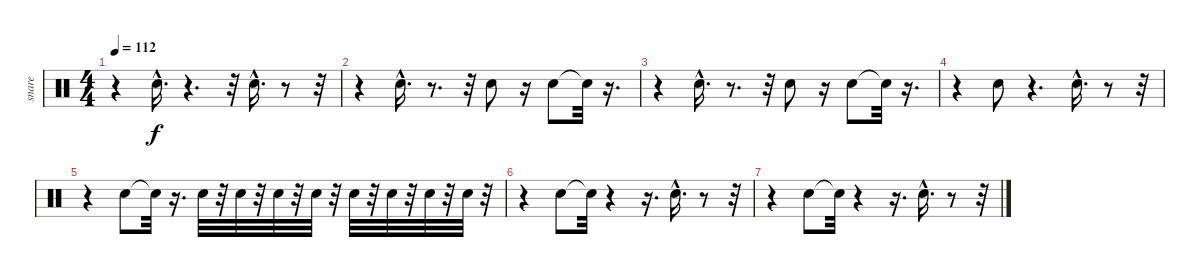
\track ("snare" "snare") {instrument percussion}
\staff {score}
\articulation defaults
\ts (4 4)
\tempo 112
\clef neutral
\ks c
r.4{dy f} "Snare (hit) 2"{hac}.16{d} r.4{d} r.32 "Snare (hit) 2"{hac}.16{d} r.8 r.32 |
r.4 "Snare (hit) 2"{hac}.16{d} r.8{d} r.32 "Snare (hit) 2".8 r.16 "Snare (hit) 2".8 "Snare (hit)"{t}.32 r.16{d} |
r.4 "Snare (hit) 2"{hac}.16{d} r.8{d} r.32 "Snare (hit) 2".8 r.16 "Snare (hit) 2".8 "Snare (hit)"{t}.32 r.16{d} |
r.4 "Snare (hit) 2".8 r.4{d} "Snare (hit) 2"{hac}.16{d} r.8 r.32 |
r.4 "Snare (hit) 2".8 "Snare (hit)"{t}.32 r.16{d} "Snare (hit) 2".32 r.32 "Snare (hit) 2".32 r.32 "Snare (hit) 2".32 r.32 "Snare (hit) 2".32 r.32 "Snare (hit) 2".32 r.32 "Snare (hit) 2".32 r.32 "Snare (hit) 2".32 r.32 "Snare (hit) 2".32 r.32 |
r.4 "Snare (hit) 2".8 "Snare (hit)"{t}.32 r.4 r.16{d} "Snare (hit) 2"{hac}.16{d} r.8 r.32 |
r.4 "Snare (hit) 2".8 "Snare (hit)"{t}.32 r.4 r.16{d} "Snare (hit) 2"{hac}.16{d} r.8 r.32
